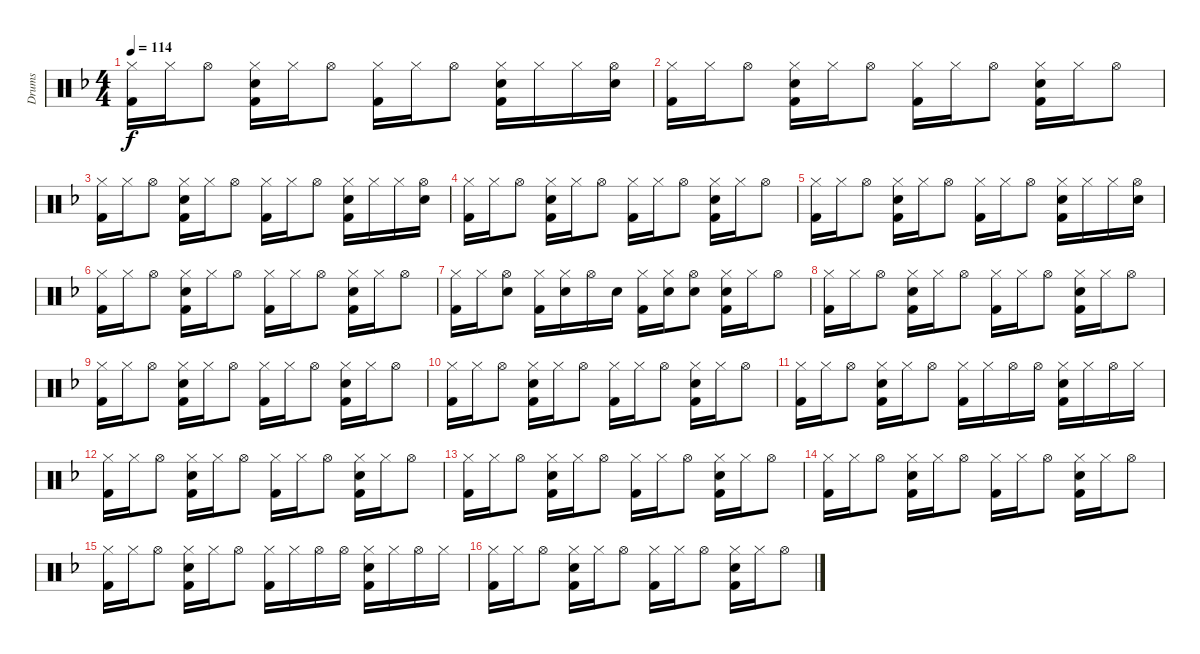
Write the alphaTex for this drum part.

\track ("Drums" "Drums") {instrument percussion}
\staff {score}
\articulation defaults
\ts (4 4)
\tempo 114
\clef neutral
\ks f
("Hi-Hat (closed)" "Kick (hit) 2").16{dy f} "Hi-Hat (closed)".16 "Hi-Hat (open)".8 ("Hi-Hat (closed)" "Electric Snare (hit)" "Kick (hit) 2").16 "Hi-Hat (closed)".16 "Hi-Hat (open)".8 ("Hi-Hat (closed)" "Kick (hit) 2").16 "Hi-Hat (closed)".16 "Hi-Hat (open)".8 ("Hi-Hat (closed)" "Electric Snare (hit)" "Kick (hit) 2").16 "Hi-Hat (closed)".16 "Hi-Hat (closed)".16 ("Hi-Hat (open)" "Electric Snare (hit)").16 |
("Hi-Hat (closed)" "Kick (hit) 2").16 "Hi-Hat (closed)".16 "Hi-Hat (open)".8 ("Hi-Hat (closed)" "Electric Snare (hit)" "Kick (hit) 2").16 "Hi-Hat (closed)".16 "Hi-Hat (open)".8 ("Hi-Hat (closed)" "Kick (hit) 2").16 "Hi-Hat (closed)".16 "Hi-Hat (open)".8 ("Hi-Hat (closed)" "Electric Snare (hit)" "Kick (hit) 2").16 "Hi-Hat (closed)".16 "Hi-Hat (open)".8 |
("Hi-Hat (closed)" "Kick (hit) 2").16 "Hi-Hat (closed)".16 "Hi-Hat (open)".8 ("Hi-Hat (closed)" "Electric Snare (hit)" "Kick (hit) 2").16 "Hi-Hat (closed)".16 "Hi-Hat (open)".8 ("Hi-Hat (closed)" "Kick (hit) 2").16 "Hi-Hat (closed)".16 "Hi-Hat (open)".8 ("Hi-Hat (closed)" "Electric Snare (hit)" "Kick (hit) 2").16 "Hi-Hat (closed)".16 "Hi-Hat (closed)".16 ("Hi-Hat (open)" "Electric Snare (hit)").16 |
("Hi-Hat (closed)" "Kick (hit) 2").16 "Hi-Hat (closed)".16 "Hi-Hat (open)".8 ("Hi-Hat (closed)" "Electric Snare (hit)" "Kick (hit) 2").16 "Hi-Hat (closed)".16 "Hi-Hat (open)".8 ("Hi-Hat (closed)" "Kick (hit) 2").16 "Hi-Hat (closed)".16 "Hi-Hat (open)".8 ("Hi-Hat (closed)" "Electric Snare (hit)" "Kick (hit) 2").16 "Hi-Hat (closed)".16 "Hi-Hat (open)".8 |
("Hi-Hat (closed)" "Kick (hit) 2").16 "Hi-Hat (closed)".16 "Hi-Hat (open)".8 ("Hi-Hat (closed)" "Electric Snare (hit)" "Kick (hit) 2").16 "Hi-Hat (closed)".16 "Hi-Hat (open)".8 ("Hi-Hat (closed)" "Kick (hit) 2").16 "Hi-Hat (closed)".16 "Hi-Hat (open)".8 ("Hi-Hat (closed)" "Electric Snare (hit)" "Kick (hit) 2").16 "Hi-Hat (closed)".16 "Hi-Hat (closed)".16 ("Hi-Hat (open)" "Electric Snare (hit)").16 |
("Hi-Hat (closed)" "Kick (hit) 2").16 "Hi-Hat (closed)".16 "Hi-Hat (open)".8 ("Hi-Hat (closed)" "Electric Snare (hit)" "Kick (hit) 2").16 "Hi-Hat (closed)".16 "Hi-Hat (open)".8 ("Hi-Hat (closed)" "Kick (hit) 2").16 "Hi-Hat (closed)".16 "Hi-Hat (open)".8 ("Hi-Hat (closed)" "Electric Snare (hit)" "Kick (hit) 2").16 "Hi-Hat (closed)".16 "Hi-Hat (open)".8 |
("Hi-Hat (closed)" "Kick (hit) 2").16 "Hi-Hat (closed)".16 ("Hi-Hat (open)" "Electric Snare (hit)").8 ("Hi-Hat (closed)" "Kick (hit) 2").16 ("Hi-Hat (closed)" "Electric Snare (hit)").16 "Hi-Hat (open)".16 "Electric Snare (hit)".16 ("Hi-Hat (closed)" "Kick (hit) 2").16 ("Hi-Hat (closed)" "Electric Snare (hit)").16 ("Hi-Hat (open)" "Electric Snare (hit)").8 ("Hi-Hat (closed)" "Electric Snare (hit)" "Kick (hit) 2").16 "Hi-Hat (closed)".16 "Hi-Hat (open)".8 |
("Hi-Hat (closed)" "Kick (hit) 2").16 "Hi-Hat (closed)".16 "Hi-Hat (open)".8 ("Hi-Hat (closed)" "Electric Snare (hit)" "Kick (hit) 2").16 "Hi-Hat (closed)".16 "Hi-Hat (open)".8 ("Hi-Hat (closed)" "Kick (hit) 2").16 "Hi-Hat (closed)".16 "Hi-Hat (open)".8 ("Hi-Hat (closed)" "Electric Snare (hit)" "Kick (hit) 2").16 "Hi-Hat (closed)".16 "Hi-Hat (open)".8 |
("Hi-Hat (closed)" "Kick (hit) 2").16 "Hi-Hat (closed)".16 "Hi-Hat (open)".8 ("Hi-Hat (closed)" "Electric Snare (hit)" "Kick (hit) 2").16 "Hi-Hat (closed)".16 "Hi-Hat (open)".8 ("Hi-Hat (closed)" "Kick (hit) 2").16 "Hi-Hat (closed)".16 "Hi-Hat (open)".8 ("Hi-Hat (closed)" "Electric Snare (hit)" "Kick (hit) 2").16 "Hi-Hat (closed)".16 "Hi-Hat (open)".8 |
("Hi-Hat (closed)" "Kick (hit) 2").16 "Hi-Hat (closed)".16 "Hi-Hat (open)".8 ("Hi-Hat (closed)" "Electric Snare (hit)" "Kick (hit) 2").16 "Hi-Hat (closed)".16 "Hi-Hat (open)".8 ("Hi-Hat (closed)" "Kick (hit) 2").16 "Hi-Hat (closed)".16 "Hi-Hat (open)".8 ("Hi-Hat (closed)" "Electric Snare (hit)" "Kick (hit) 2").16 "Hi-Hat (closed)".16 "Hi-Hat (open)".8 |
("Hi-Hat (closed)" "Kick (hit) 2").16 "Hi-Hat (closed)".16 "Hi-Hat (open)".8 ("Hi-Hat (closed)" "Electric Snare (hit)" "Kick (hit) 2").16 "Hi-Hat (closed)".16 "Hi-Hat (open)".8 ("Hi-Hat (closed)" "Kick (hit) 2").16 "Hi-Hat (closed)".16 "Hi-Hat (open)".16 "Hi-Hat (open)".16 ("Hi-Hat (closed)" "Electric Snare (hit)" "Kick (hit) 2").16 "Hi-Hat (closed)".16 "Hi-Hat (open)".16 "Hi-Hat (closed)".16 |
("Hi-Hat (closed)" "Kick (hit) 2").16 "Hi-Hat (closed)".16 "Hi-Hat (open)".8 ("Hi-Hat (closed)" "Electric Snare (hit)" "Kick (hit) 2").16 "Hi-Hat (closed)".16 "Hi-Hat (open)".8 ("Hi-Hat (closed)" "Kick (hit) 2").16 "Hi-Hat (closed)".16 "Hi-Hat (open)".8 ("Hi-Hat (closed)" "Electric Snare (hit)" "Kick (hit) 2").16 "Hi-Hat (closed)".16 "Hi-Hat (open)".8 |
("Hi-Hat (closed)" "Kick (hit) 2").16 "Hi-Hat (closed)".16 "Hi-Hat (open)".8 ("Hi-Hat (closed)" "Electric Snare (hit)" "Kick (hit) 2").16 "Hi-Hat (closed)".16 "Hi-Hat (open)".8 ("Hi-Hat (closed)" "Kick (hit) 2").16 "Hi-Hat (closed)".16 "Hi-Hat (open)".8 ("Hi-Hat (closed)" "Electric Snare (hit)" "Kick (hit) 2").16 "Hi-Hat (closed)".16 "Hi-Hat (open)".8 |
("Hi-Hat (closed)" "Kick (hit) 2").16 "Hi-Hat (closed)".16 "Hi-Hat (open)".8 ("Hi-Hat (closed)" "Electric Snare (hit)" "Kick (hit) 2").16 "Hi-Hat (closed)".16 "Hi-Hat (open)".8 ("Hi-Hat (closed)" "Kick (hit) 2").16 "Hi-Hat (closed)".16 "Hi-Hat (open)".8 ("Hi-Hat (closed)" "Electric Snare (hit)" "Kick (hit) 2").16 "Hi-Hat (closed)".16 "Hi-Hat (open)".8 |
("Hi-Hat (closed)" "Kick (hit) 2").16 "Hi-Hat (closed)".16 "Hi-Hat (open)".8 ("Hi-Hat (closed)" "Electric Snare (hit)" "Kick (hit) 2").16 "Hi-Hat (closed)".16 "Hi-Hat (open)".8 ("Hi-Hat (closed)" "Kick (hit) 2").16 "Hi-Hat (closed)".16 "Hi-Hat (open)".16 "Hi-Hat (open)".16 ("Hi-Hat (closed)" "Electric Snare (hit)" "Kick (hit) 2").16 "Hi-Hat (closed)".16 "Hi-Hat (open)".16 "Hi-Hat (closed)".16 |
("Hi-Hat (closed)" "Kick (hit) 2").16 "Hi-Hat (closed)".16 "Hi-Hat (open)".8 ("Hi-Hat (closed)" "Electric Snare (hit)" "Kick (hit) 2").16 "Hi-Hat (closed)".16 "Hi-Hat (open)".8 ("Hi-Hat (closed)" "Kick (hit) 2").16 "Hi-Hat (closed)".16 "Hi-Hat (open)".8 ("Hi-Hat (closed)" "Electric Snare (hit)" "Kick (hit) 2").16 "Hi-Hat (closed)".16 "Hi-Hat (open)".8
